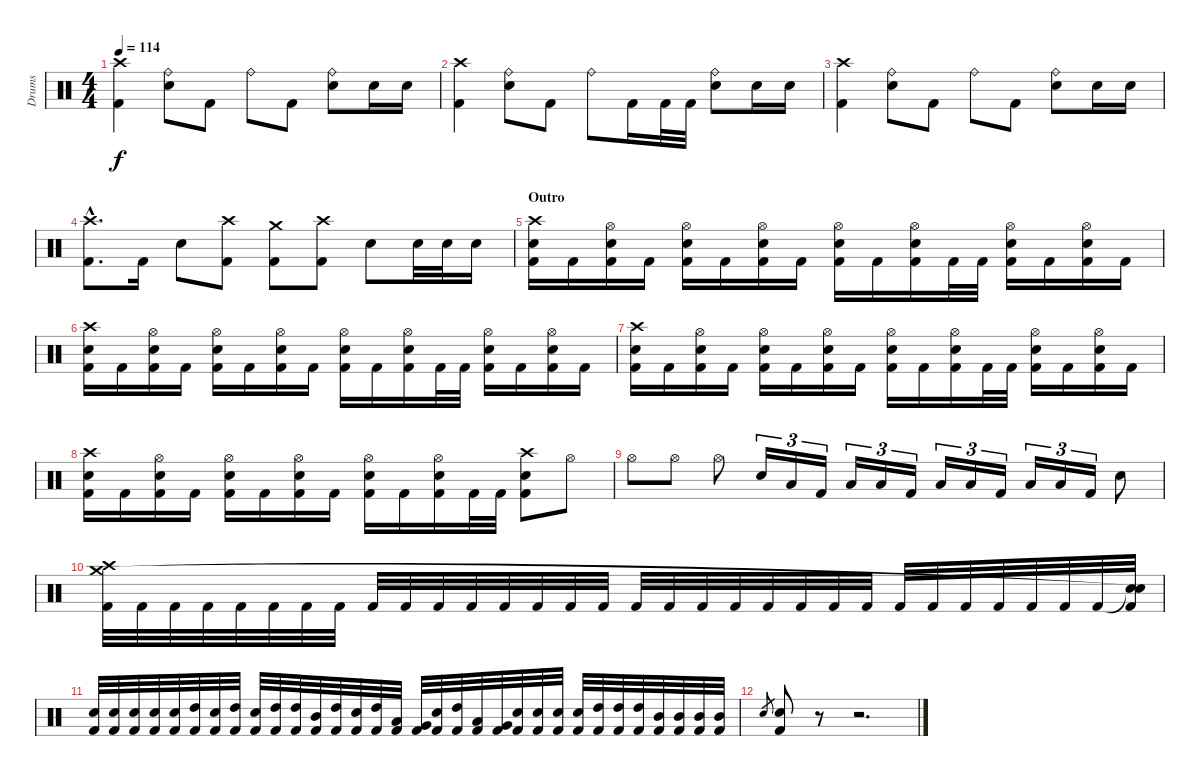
\track ("Drums" "Drums") {instrument percussion}
\staff {score}
\articulation defaults
\ts (4 4)
\tempo 114
\clef neutral
\ks c
("Crash high (hit)" "Kick (hit) 2").4{dy f} ("Ride (bell)" "Electric Snare (hit)").8 "Kick (hit) 2".8 "Ride (bell)".8 "Kick (hit) 2".8 ("Ride (bell)" "Electric Snare (hit)").8 "Electric Snare (hit)".16 "Electric Snare (hit)".16 |
("Crash high (hit)" "Kick (hit) 2").4 ("Ride (bell)" "Electric Snare (hit)").8 "Kick (hit) 2".8 "Ride (bell)".8 "Kick (hit) 2".16 "Kick (hit) 2".32 "Kick (hit) 2".32 ("Ride (bell)" "Electric Snare (hit)").8 "Electric Snare (hit)".16 "Electric Snare (hit)".16 |
("Crash high (hit)" "Kick (hit) 2").4 ("Ride (bell)" "Electric Snare (hit)").8 "Kick (hit) 2".8 "Ride (bell)".8 "Kick (hit) 2".8 ("Ride (bell)" "Electric Snare (hit)").8 "Electric Snare (hit)".16 "Electric Snare (hit)".16 |
("Crash high (hit)"{hac} "Kick (hit) 2"{hac}).8{d} "Kick (hit) 2".16 "Electric Snare (hit)".8 ("Crash high (hit)" "Kick (hit) 2").8 ("Crash medium (hit)" "Kick (hit) 2").8 ("Crash high (hit)" "Kick (hit) 2").8 "Electric Snare (hit)".8 "Electric Snare (hit)".32 "Electric Snare (hit)".32 "Electric Snare (hit)".16 |
\section ("" "Outro")
("Crash high (hit)" "Electric Snare (hit)" "Kick (hit) 2").16 "Kick (hit) 2".16 ("Hi-Hat (open)" "Electric Snare (hit)" "Kick (hit) 2").16 "Kick (hit) 2".16 ("Hi-Hat (open)" "Electric Snare (hit)" "Kick (hit) 2").16 "Kick (hit) 2".16 ("Hi-Hat (open)" "Electric Snare (hit)" "Kick (hit) 2").16 "Kick (hit) 2".16 ("Hi-Hat (open)" "Electric Snare (hit)" "Kick (hit) 2").16 "Kick (hit) 2".16 ("Hi-Hat (open)" "Electric Snare (hit)" "Kick (hit) 2").16 "Kick (hit) 2".32 "Kick (hit) 2".32 ("Hi-Hat (open)" "Electric Snare (hit)" "Kick (hit) 2").16 "Kick (hit) 2".16 ("Hi-Hat (open)" "Electric Snare (hit)" "Kick (hit) 2").16 "Kick (hit) 2".16 |
("Crash high (hit)" "Electric Snare (hit)" "Kick (hit) 2").16 "Kick (hit) 2".16 ("Hi-Hat (open)" "Electric Snare (hit)" "Kick (hit) 2").16 "Kick (hit) 2".16 ("Hi-Hat (open)" "Electric Snare (hit)" "Kick (hit) 2").16 "Kick (hit) 2".16 ("Hi-Hat (open)" "Electric Snare (hit)" "Kick (hit) 2").16 "Kick (hit) 2".16 ("Hi-Hat (open)" "Electric Snare (hit)" "Kick (hit) 2").16 "Kick (hit) 2".16 ("Hi-Hat (open)" "Electric Snare (hit)" "Kick (hit) 2").16 "Kick (hit) 2".32 "Kick (hit) 2".32 ("Hi-Hat (open)" "Electric Snare (hit)" "Kick (hit) 2").16 "Kick (hit) 2".16 ("Hi-Hat (open)" "Electric Snare (hit)" "Kick (hit) 2").16 "Kick (hit) 2".16 |
("Crash high (hit)" "Electric Snare (hit)" "Kick (hit) 2").16 "Kick (hit) 2".16 ("Hi-Hat (open)" "Electric Snare (hit)" "Kick (hit) 2").16 "Kick (hit) 2".16 ("Hi-Hat (open)" "Electric Snare (hit)" "Kick (hit) 2").16 "Kick (hit) 2".16 ("Hi-Hat (open)" "Electric Snare (hit)" "Kick (hit) 2").16 "Kick (hit) 2".16 ("Hi-Hat (open)" "Electric Snare (hit)" "Kick (hit) 2").16 "Kick (hit) 2".16 ("Hi-Hat (open)" "Electric Snare (hit)" "Kick (hit) 2").16 "Kick (hit) 2".32 "Kick (hit) 2".32 ("Hi-Hat (open)" "Electric Snare (hit)" "Kick (hit) 2").16 "Kick (hit) 2".16 ("Hi-Hat (open)" "Electric Snare (hit)" "Kick (hit) 2").16 "Kick (hit) 2".16 |
("Crash high (hit)" "Electric Snare (hit)" "Kick (hit) 2").16 "Kick (hit) 2".16 ("Hi-Hat (open)" "Electric Snare (hit)" "Kick (hit) 2").16 "Kick (hit) 2".16 ("Hi-Hat (open)" "Electric Snare (hit)" "Kick (hit) 2").16 "Kick (hit) 2".16 ("Hi-Hat (open)" "Electric Snare (hit)" "Kick (hit) 2").16 "Kick (hit) 2".16 ("Hi-Hat (open)" "Electric Snare (hit)" "Kick (hit) 2").16 "Kick (hit) 2".16 ("Hi-Hat (open)" "Electric Snare (hit)" "Kick (hit) 2").16 "Kick (hit) 2".32 "Kick (hit) 2".32 ("Crash high (hit)" "Electric Snare (hit)" "Kick (hit) 2").8 "Hi-Hat (open)".8 |
"Hi-Hat (open)".8 "Hi-Hat (open)".8 "Hi-Hat (open)".8 "Electric Snare (hit)".16{tu (3 2)} "Low Floor Tom (hit)".16{tu (3 2)} "Kick (hit) 2".16{tu (3 2)} "Low Tom (hit)".16{tu (3 2)} "Low Floor Tom (hit)".16{tu (3 2)} "Kick (hit) 2".16{tu (3 2)} "Low Tom (hit)".16{tu (3 2)} "Low Floor Tom (hit)".16{tu (3 2)} "Kick (hit) 2".16{tu (3 2)} "Low Tom (hit)".16{tu (3 2)} "Low Floor Tom (hit)".16{tu (3 2)} "Kick (hit) 2".16{tu (3 2)} "Electric Snare (hit)".8 |
("Crash high (hit)" "Crash medium (hit)" "Kick (hit) 2").32 "Kick (hit) 2".32 "Kick (hit) 2".32 "Kick (hit) 2".32 "Kick (hit) 2".32 "Kick (hit) 2".32 "Kick (hit) 2".32 "Kick (hit) 2".32 "Kick (hit) 2".32 "Kick (hit) 2".32 "Kick (hit) 2".32 "Kick (hit) 2".32 "Kick (hit) 2".32 "Kick (hit) 2".32 "Kick (hit) 2".32 "Kick (hit) 2".32 "Kick (hit) 2".32 "Kick (hit) 2".32 "Kick (hit) 2".32 "Kick (hit) 2".32 "Kick (hit) 2".32 "Kick (hit) 2".32 "Kick (hit) 2".32 "Kick (hit) 2".32 "Kick (hit) 2".32 "Kick (hit) 2".32 "Kick (hit) 2".32 "Kick (hit) 2".32 "Kick (hit) 2".32 "Kick (hit) 2".32 "Kick (hit) 2".32 ("Snare (hit)"{t} "Snare (hit)"{t} "Kick (hit) 2").32 |
("Electric Snare (hit)" "Kick (hit) 2").32 ("Electric Snare (hit)" "Kick (hit) 2").32 ("Electric Snare (hit)" "Kick (hit) 2").32 ("Electric Snare (hit)" "Kick (hit) 2").32 ("Electric Snare (hit)" "Kick (hit) 2").32 ("High Tom (hit)" "Kick (hit) 2").32 ("Electric Snare (hit)" "Kick (hit) 2").32 ("High Tom (hit)" "Kick (hit) 2").32 ("Electric Snare (hit)" "Kick (hit) 2").32 ("High Tom (hit)" "Kick (hit) 2").32 ("High Tom (hit)" "Kick (hit) 2").32 ("Mid Tom (hit)" "Kick (hit) 2").32 ("High Tom (hit)" "Kick (hit) 2").32 ("Electric Snare (hit)" "Kick (hit) 2").32 ("High Tom (hit)" "Kick (hit) 2").32 ("Low Tom (hit)" "Kick (hit) 2").32 ("Very Low Tom (hit)" "Kick (hit) 2").32 ("Electric Snare (hit)" "Kick (hit) 2").32 ("High Tom (hit)" "Kick (hit) 2").32 ("Low Tom (hit)" "Kick (hit) 2").32 ("Very Low Tom (hit)" "Kick (hit) 2").32 ("Electric Snare (hit)" "Kick (hit) 2").32 ("Electric Snare (hit)" "Kick (hit) 2").32 ("Electric Snare (hit)" "Kick (hit) 2").32 ("Electric Snare (hit)" "Kick (hit) 2").32 ("High Tom (hit)" "Kick (hit) 2").32 ("High Tom (hit)" "Kick (hit) 2").32 ("High Tom (hit)" "Kick (hit) 2").32 ("Mid Tom (hit)" "Kick (hit) 2").32 ("Mid Tom (hit)" "Kick (hit) 2").32 ("Mid Tom (hit)" "Kick (hit) 2").32 ("Mid Tom (hit)" "Kick (hit) 2").32 |
"Electric Snare (hit)".8{gr} ("Electric Snare (hit)" "Kick (hit) 2").8 r.8 r.2{d}
